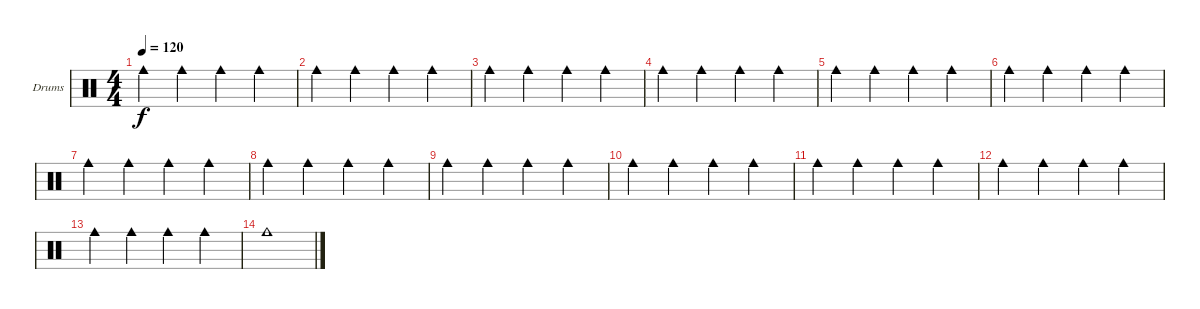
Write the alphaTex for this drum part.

\defaultSystemsLayout 4
\bracketExtendMode groupsimilarinstruments
\firstSystemTrackNameOrientation horizontal
\otherSystemsTrackNameOrientation horizontal
\track ("Cow Bell" "Drums") {multiBarRest instrument percussion}
\staff {score}
\articulation defaults
\ts (4 4)
\tempo 120
\clef neutral
\ks c "Cowbell medium (hit)".4{dy f} "Cowbell medium (hit)".4 "Cowbell medium (hit)".4 "Cowbell medium (hit)".4
|
"Cowbell medium (hit)".4 "Cowbell medium (hit)".4 "Cowbell medium (hit)".4 "Cowbell medium (hit)".4 |
"Cowbell medium (hit)".4 "Cowbell medium (hit)".4 "Cowbell medium (hit)".4 "Cowbell medium (hit)".4 |
"Cowbell medium (hit)".4 "Cowbell medium (hit)".4 "Cowbell medium (hit)".4 "Cowbell medium (hit)".4 |
"Cowbell medium (hit)".4 "Cowbell medium (hit)".4 "Cowbell medium (hit)".4 "Cowbell medium (hit)".4 |
"Cowbell medium (hit)".4 "Cowbell medium (hit)".4 "Cowbell medium (hit)".4 "Cowbell medium (hit)".4 |
"Cowbell medium (hit)".4 "Cowbell medium (hit)".4 "Cowbell medium (hit)".4 "Cowbell medium (hit)".4 |
"Cowbell medium (hit)".4 "Cowbell medium (hit)".4 "Cowbell medium (hit)".4 "Cowbell medium (hit)".4 |
"Cowbell medium (hit)".4 "Cowbell medium (hit)".4 "Cowbell medium (hit)".4 "Cowbell medium (hit)".4 |
"Cowbell medium (hit)".4 "Cowbell medium (hit)".4 "Cowbell medium (hit)".4 "Cowbell medium (hit)".4 |
"Cowbell medium (hit)".4 "Cowbell medium (hit)".4 "Cowbell medium (hit)".4 "Cowbell medium (hit)".4 |
"Cowbell medium (hit)".4 "Cowbell medium (hit)".4 "Cowbell medium (hit)".4 "Cowbell medium (hit)".4 |
"Cowbell medium (hit)".4 "Cowbell medium (hit)".4 "Cowbell medium (hit)".4 "Cowbell medium (hit)".4 |
"Cowbell medium (hit)".1
